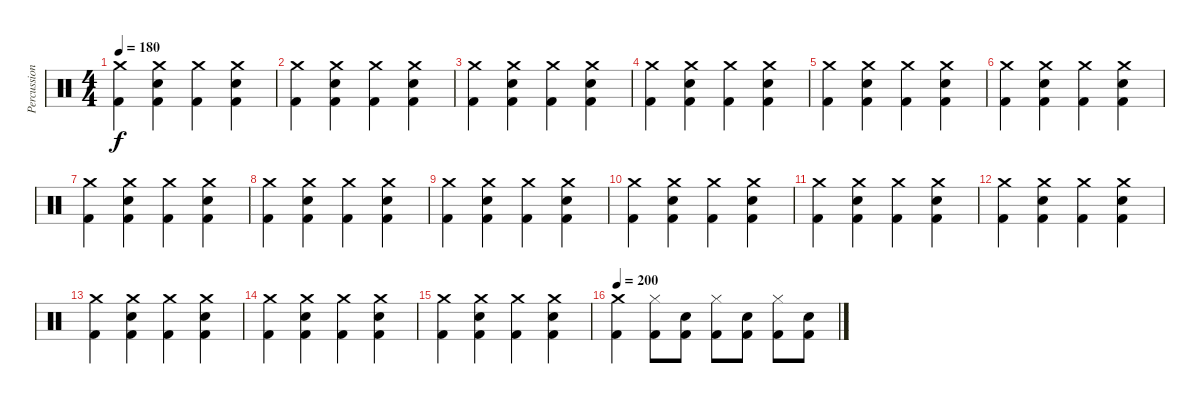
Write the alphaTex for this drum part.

\track ("Percussion" "Percussion") {instrument percussion}
\staff {score}
\articulation defaults
\ts (4 4)
\tempo 180
\clef neutral
\ks c
("Crash medium (hit)" "Kick (hit) 2").4{dy f} ("Crash medium (hit)" "Electric Snare (hit)" "Kick (hit) 2").4 ("Crash medium (hit)" "Kick (hit) 2").4 ("Crash medium (hit)" "Electric Snare (hit)" "Kick (hit) 2").4 |
("Crash medium (hit)" "Kick (hit) 2").4 ("Crash medium (hit)" "Electric Snare (hit)" "Kick (hit) 2").4 ("Crash medium (hit)" "Kick (hit) 2").4 ("Crash medium (hit)" "Electric Snare (hit)" "Kick (hit) 2").4 |
("Crash medium (hit)" "Kick (hit) 2").4 ("Crash medium (hit)" "Electric Snare (hit)" "Kick (hit) 2").4 ("Crash medium (hit)" "Kick (hit) 2").4 ("Crash medium (hit)" "Electric Snare (hit)" "Kick (hit) 2").4 |
("Crash medium (hit)" "Kick (hit) 2").4 ("Crash medium (hit)" "Electric Snare (hit)" "Kick (hit) 2").4 ("Crash medium (hit)" "Kick (hit) 2").4 ("Crash medium (hit)" "Electric Snare (hit)" "Kick (hit) 2").4 |
("Crash medium (hit)" "Kick (hit) 2").4 ("Crash medium (hit)" "Electric Snare (hit)" "Kick (hit) 2").4 ("Crash medium (hit)" "Kick (hit) 2").4 ("Crash medium (hit)" "Electric Snare (hit)" "Kick (hit) 2").4 |
("Crash medium (hit)" "Kick (hit) 2").4 ("Crash medium (hit)" "Electric Snare (hit)" "Kick (hit) 2").4 ("Crash medium (hit)" "Kick (hit) 2").4 ("Crash medium (hit)" "Electric Snare (hit)" "Kick (hit) 2").4 |
("Crash medium (hit)" "Kick (hit) 2").4 ("Crash medium (hit)" "Electric Snare (hit)" "Kick (hit) 2").4 ("Crash medium (hit)" "Kick (hit) 2").4 ("Crash medium (hit)" "Electric Snare (hit)" "Kick (hit) 2").4 |
("Crash medium (hit)" "Kick (hit) 2").4 ("Crash medium (hit)" "Electric Snare (hit)" "Kick (hit) 2").4 ("Crash medium (hit)" "Kick (hit) 2").4 ("Crash medium (hit)" "Electric Snare (hit)" "Kick (hit) 2").4 |
("Crash medium (hit)" "Kick (hit) 2").4 ("Crash medium (hit)" "Electric Snare (hit)" "Kick (hit) 2").4 ("Crash medium (hit)" "Kick (hit) 2").4 ("Crash medium (hit)" "Electric Snare (hit)" "Kick (hit) 2").4 |
("Crash medium (hit)" "Kick (hit) 2").4 ("Crash medium (hit)" "Electric Snare (hit)" "Kick (hit) 2").4 ("Crash medium (hit)" "Kick (hit) 2").4 ("Crash medium (hit)" "Electric Snare (hit)" "Kick (hit) 2").4 |
("Crash medium (hit)" "Kick (hit) 2").4 ("Crash medium (hit)" "Electric Snare (hit)" "Kick (hit) 2").4 ("Crash medium (hit)" "Kick (hit) 2").4 ("Crash medium (hit)" "Electric Snare (hit)" "Kick (hit) 2").4 |
("Crash medium (hit)" "Kick (hit) 2").4 ("Crash medium (hit)" "Electric Snare (hit)" "Kick (hit) 2").4 ("Crash medium (hit)" "Kick (hit) 2").4 ("Crash medium (hit)" "Electric Snare (hit)" "Kick (hit) 2").4 |
("Crash medium (hit)" "Kick (hit) 2").4 ("Crash medium (hit)" "Electric Snare (hit)" "Kick (hit) 2").4 ("Crash medium (hit)" "Kick (hit) 2").4 ("Crash medium (hit)" "Electric Snare (hit)" "Kick (hit) 2").4 |
("Crash medium (hit)" "Kick (hit) 2").4 ("Crash medium (hit)" "Electric Snare (hit)" "Kick (hit) 2").4 ("Crash medium (hit)" "Kick (hit) 2").4 ("Crash medium (hit)" "Electric Snare (hit)" "Kick (hit) 2").4 |
("Crash medium (hit)" "Kick (hit) 2").4 ("Crash medium (hit)" "Electric Snare (hit)" "Kick (hit) 2").4 ("Crash medium (hit)" "Kick (hit) 2").4 ("Crash medium (hit)" "Electric Snare (hit)" "Kick (hit) 2").4 |
\tempo 200
("Crash medium (hit)" "Kick (hit) 2").4 ("Hi-Hat (closed)" "Kick (hit) 2").8 ("Electric Snare (hit)" "Kick (hit) 2").8 ("Hi-Hat (closed)" "Kick (hit) 2").8 ("Electric Snare (hit)" "Kick (hit) 2").8 ("Hi-Hat (closed)" "Kick (hit) 2").8 ("Electric Snare (hit)" "Kick (hit) 2").8
